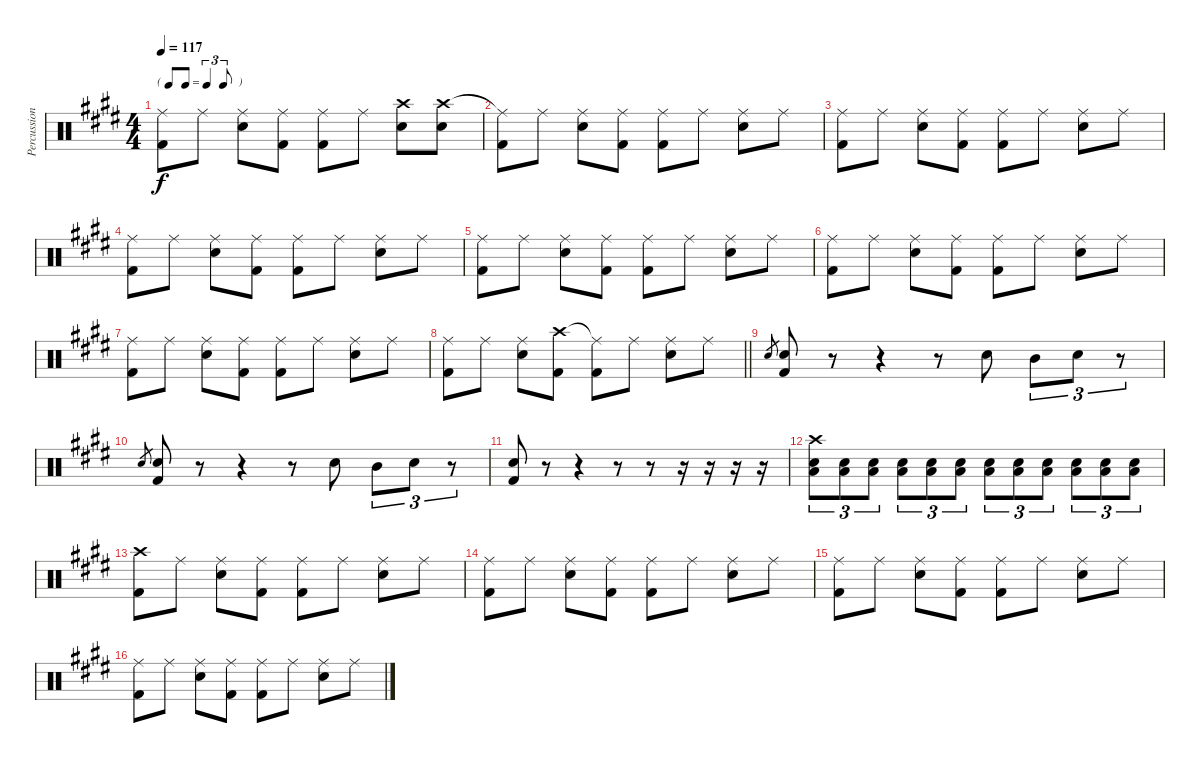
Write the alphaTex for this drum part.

\track ("Percussion" "Percussion") {instrument percussion}
\staff {score}
\articulation defaults
\ts (4 4)
\tf triplet8th
\tempo 117
\clef neutral
\ks e
("Ride (middle)" "Kick (hit) 2").8{dy f} "Ride (middle)".8 ("Ride (middle)" "Snare (hit) 2").8 ("Ride (middle)" "Kick (hit) 2").8 ("Ride (middle)" "Kick (hit) 2").8 "Ride (middle)".8 ("Crash high (hit)" "Snare (hit) 2").8 ("Crash high (hit)" "Snare (hit) 2").8 |
("Ride (middle)"{t} "Kick (hit) 2").8 "Ride (middle)".8 ("Ride (middle)" "Snare (hit) 2").8 ("Ride (middle)" "Kick (hit) 2").8 ("Ride (middle)" "Kick (hit) 2").8 "Ride (middle)".8 ("Ride (middle)" "Snare (hit) 2").8 "Ride (middle)".8 |
("Ride (middle)" "Kick (hit) 2").8 "Ride (middle)".8 ("Ride (middle)" "Snare (hit) 2").8 ("Ride (middle)" "Kick (hit) 2").8 ("Ride (middle)" "Kick (hit) 2").8 "Ride (middle)".8 ("Ride (middle)" "Snare (hit) 2").8 "Ride (middle)".8 |
("Ride (middle)" "Kick (hit) 2").8 "Ride (middle)".8 ("Ride (middle)" "Snare (hit) 2").8 ("Ride (middle)" "Kick (hit) 2").8 ("Ride (middle)" "Kick (hit) 2").8 "Ride (middle)".8 ("Ride (middle)" "Snare (hit) 2").8 "Ride (middle)".8 |
("Ride (middle)" "Kick (hit) 2").8 "Ride (middle)".8 ("Ride (middle)" "Snare (hit) 2").8 ("Ride (middle)" "Kick (hit) 2").8 ("Ride (middle)" "Kick (hit) 2").8 "Ride (middle)".8 ("Ride (middle)" "Snare (hit) 2").8 "Ride (middle)".8 |
("Ride (middle)" "Kick (hit) 2").8 "Ride (middle)".8 ("Ride (middle)" "Snare (hit) 2").8 ("Ride (middle)" "Kick (hit) 2").8 ("Ride (middle)" "Kick (hit) 2").8 "Ride (middle)".8 ("Ride (middle)" "Snare (hit) 2").8 "Ride (middle)".8 |
("Ride (middle)" "Kick (hit) 2").8 "Ride (middle)".8 ("Ride (middle)" "Snare (hit) 2").8 ("Ride (middle)" "Kick (hit) 2").8 ("Ride (middle)" "Kick (hit) 2").8 "Ride (middle)".8 ("Ride (middle)" "Snare (hit) 2").8 "Ride (middle)".8 |
\barLineRight lightlight
("Ride (middle)" "Kick (hit) 2").8 "Ride (middle)".8 ("Ride (middle)" "Snare (hit) 2").8 ("Crash high (hit)" "Kick (hit) 2").8 ("Ride (middle)"{t} "Kick (hit) 2").8 "Ride (middle)".8 ("Ride (middle)" "Snare (hit) 2").8 "Ride (middle)".8 |
"Snare (hit) 2".8{gr} ("Snare (hit) 2" "Kick (hit) 2").8 r.8 r.4 r.8 "Snare (hit) 2".8 "Mid Tom (hit)".8{tu (3 2)} "Snare (hit) 2".8{tu (3 2)} r.8{tu (3 2)} |
"Snare (hit) 2".8{gr} ("Snare (hit) 2" "Kick (hit) 2").8 r.8 r.4 r.8 "Snare (hit) 2".8 "Mid Tom (hit)".8{tu (3 2)} "Snare (hit) 2".8{tu (3 2)} r.8{tu (3 2)} |
("Snare (hit) 2" "Kick (hit) 2").8 r.8 r.4 r.8 r.8 r.16 r.16 r.16 r.16 |
("Crash high (hit)" "Snare (hit) 2" "Low Floor Tom (hit)").8{tu (3 2)} ("Snare (hit) 2" "Low Floor Tom (hit)").8{tu (3 2)} ("Snare (hit) 2" "Low Floor Tom (hit)").8{tu (3 2)} ("Snare (hit) 2" "Low Floor Tom (hit)").8{tu (3 2)} ("Snare (hit) 2" "Low Floor Tom (hit)").8{tu (3 2)} ("Snare (hit) 2" "Low Floor Tom (hit)").8{tu (3 2)} ("Snare (hit) 2" "Low Floor Tom (hit)").8{tu (3 2)} ("Snare (hit) 2" "Low Floor Tom (hit)").8{tu (3 2)} ("Snare (hit) 2" "Low Floor Tom (hit)").8{tu (3 2)} ("Snare (hit) 2" "Low Floor Tom (hit)").8{tu (3 2)} ("Snare (hit) 2" "Low Floor Tom (hit)").8{tu (3 2)} ("Snare (hit) 2" "Low Floor Tom (hit)").8{tu (3 2)} |
("Crash high (hit)" "Kick (hit) 2").8 "Ride (middle)".8 ("Ride (middle)" "Snare (hit) 2").8 ("Ride (middle)" "Kick (hit) 2").8 ("Ride (middle)" "Kick (hit) 2").8 "Ride (middle)".8 ("Ride (middle)" "Snare (hit) 2").8 "Ride (middle)".8 |
("Ride (middle)" "Kick (hit) 2").8 "Ride (middle)".8 ("Ride (middle)" "Snare (hit) 2").8 ("Ride (middle)" "Kick (hit) 2").8 ("Ride (middle)" "Kick (hit) 2").8 "Ride (middle)".8 ("Ride (middle)" "Snare (hit) 2").8 "Ride (middle)".8 |
("Ride (middle)" "Kick (hit) 2").8 "Ride (middle)".8 ("Ride (middle)" "Snare (hit) 2").8 ("Ride (middle)" "Kick (hit) 2").8 ("Ride (middle)" "Kick (hit) 2").8 "Ride (middle)".8 ("Ride (middle)" "Snare (hit) 2").8 "Ride (middle)".8 |
("Ride (middle)" "Kick (hit) 2").8 "Ride (middle)".8 ("Ride (middle)" "Snare (hit) 2").8 ("Ride (middle)" "Kick (hit) 2").8 ("Ride (middle)" "Kick (hit) 2").8 "Ride (middle)".8 ("Ride (middle)" "Snare (hit) 2").8 "Ride (middle)".8
